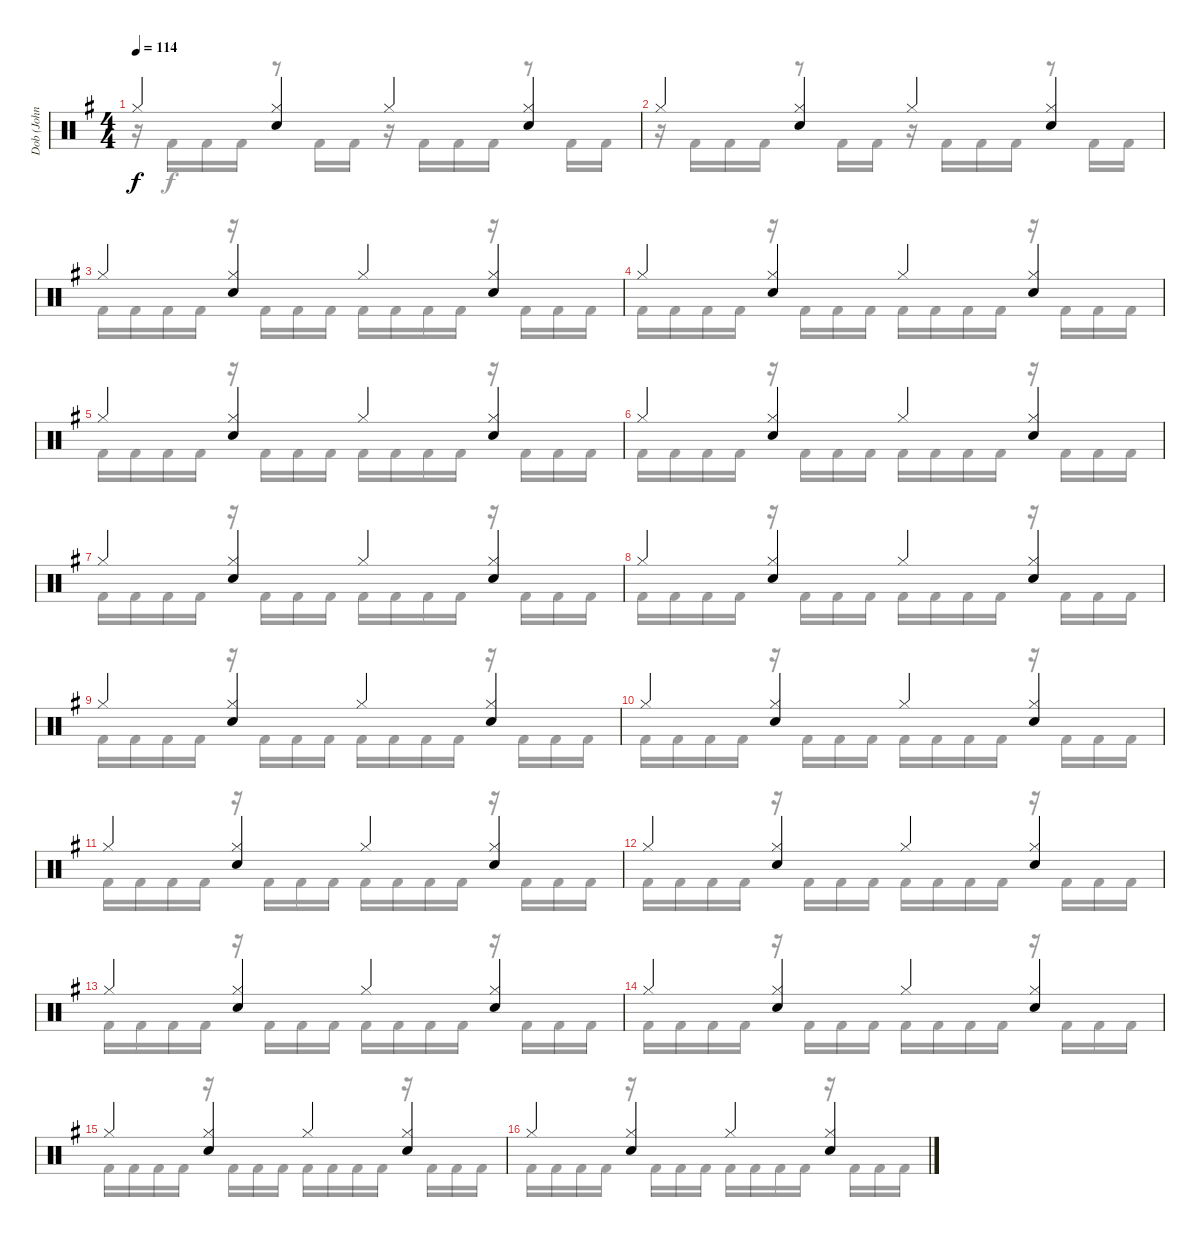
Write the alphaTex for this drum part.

\track ("Dob (John Macaluso)" "Dob (John ") {instrument percussion}
\staff {score}
\articulation defaults
\voice
\ts (4 4)
\tempo 114
\clef neutral
\ks g "Hi-Hat (closed)".4{dy f}
("Hi-Hat (closed)" "Electric Snare (hit)").4 "Hi-Hat (closed)".4 ("Hi-Hat (closed)" "Electric Snare (hit)").4 |
"Hi-Hat (closed)".4 ("Hi-Hat (closed)" "Electric Snare (hit)").4 "Hi-Hat (closed)".4 ("Hi-Hat (closed)" "Electric Snare (hit)").4 |
"Hi-Hat (closed)".4 ("Hi-Hat (closed)" "Electric Snare (hit)").4 "Hi-Hat (closed)".4 ("Hi-Hat (closed)" "Electric Snare (hit)").4 |
"Hi-Hat (closed)".4 ("Hi-Hat (closed)" "Electric Snare (hit)").4 "Hi-Hat (closed)".4 ("Hi-Hat (closed)" "Electric Snare (hit)").4 |
"Hi-Hat (closed)".4 ("Hi-Hat (closed)" "Electric Snare (hit)").4 "Hi-Hat (closed)".4 ("Hi-Hat (closed)" "Electric Snare (hit)").4 |
"Hi-Hat (closed)".4 ("Hi-Hat (closed)" "Electric Snare (hit)").4 "Hi-Hat (closed)".4 ("Hi-Hat (closed)" "Electric Snare (hit)").4 |
"Hi-Hat (closed)".4 ("Hi-Hat (closed)" "Electric Snare (hit)").4 "Hi-Hat (closed)".4 ("Hi-Hat (closed)" "Electric Snare (hit)").4 |
"Hi-Hat (closed)".4 ("Hi-Hat (closed)" "Electric Snare (hit)").4 "Hi-Hat (closed)".4 ("Hi-Hat (closed)" "Electric Snare (hit)").4 |
"Hi-Hat (closed)".4 ("Hi-Hat (closed)" "Electric Snare (hit)").4 "Hi-Hat (closed)".4 ("Hi-Hat (closed)" "Electric Snare (hit)").4 |
"Hi-Hat (closed)".4 ("Hi-Hat (closed)" "Electric Snare (hit)").4 "Hi-Hat (closed)".4 ("Hi-Hat (closed)" "Electric Snare (hit)").4 |
"Hi-Hat (closed)".4 ("Hi-Hat (closed)" "Electric Snare (hit)").4 "Hi-Hat (closed)".4 ("Hi-Hat (closed)" "Electric Snare (hit)").4 |
"Hi-Hat (closed)".4 ("Hi-Hat (closed)" "Electric Snare (hit)").4 "Hi-Hat (closed)".4 ("Hi-Hat (closed)" "Electric Snare (hit)").4 |
"Hi-Hat (closed)".4 ("Hi-Hat (closed)" "Electric Snare (hit)").4 "Hi-Hat (closed)".4 ("Hi-Hat (closed)" "Electric Snare (hit)").4 |
"Hi-Hat (closed)".4 ("Hi-Hat (closed)" "Electric Snare (hit)").4 "Hi-Hat (closed)".4 ("Hi-Hat (closed)" "Electric Snare (hit)").4 |
"Hi-Hat (closed)".4 ("Hi-Hat (closed)" "Electric Snare (hit)").4 "Hi-Hat (closed)".4 ("Hi-Hat (closed)" "Electric Snare (hit)").4 |
"Hi-Hat (closed)".4 ("Hi-Hat (closed)" "Electric Snare (hit)").4 "Hi-Hat (closed)".4 ("Hi-Hat (closed)" "Electric Snare (hit)").4
\voice
\clef neutral
\ottava regular
\simile none
\ks g
r.16{dy f} "Kick (hit) 2".16 "Kick (hit) 2".16 "Kick (hit) 2".16 r.8 "Kick (hit) 2".16 "Kick (hit) 2".16 r.16 "Kick (hit) 2".16 "Kick (hit) 2".16 "Kick (hit) 2".16 r.8 "Kick (hit) 2".16 "Kick (hit) 2".16 |
r.16 "Kick (hit) 2".16 "Kick (hit) 2".16 "Kick (hit) 2".16 r.8 "Kick (hit) 2".16 "Kick (hit) 2".16 r.16 "Kick (hit) 2".16 "Kick (hit) 2".16 "Kick (hit) 2".16 r.8 "Kick (hit) 2".16 "Kick (hit) 2".16 |
"Kick (hit) 2".16 "Kick (hit) 2".16 "Kick (hit) 2".16 "Kick (hit) 2".16 r.16 "Kick (hit) 2".16 "Kick (hit) 2".16 "Kick (hit) 2".16 "Kick (hit) 2".16 "Kick (hit) 2".16 "Kick (hit) 2".16 "Kick (hit) 2".16 r.16 "Kick (hit) 2".16 "Kick (hit) 2".16 "Kick (hit) 2".16 |
"Kick (hit) 2".16 "Kick (hit) 2".16 "Kick (hit) 2".16 "Kick (hit) 2".16 r.16 "Kick (hit) 2".16 "Kick (hit) 2".16 "Kick (hit) 2".16 "Kick (hit) 2".16 "Kick (hit) 2".16 "Kick (hit) 2".16 "Kick (hit) 2".16 r.16 "Kick (hit) 2".16 "Kick (hit) 2".16 "Kick (hit) 2".16 |
"Kick (hit) 2".16 "Kick (hit) 2".16 "Kick (hit) 2".16 "Kick (hit) 2".16 r.16 "Kick (hit) 2".16 "Kick (hit) 2".16 "Kick (hit) 2".16 "Kick (hit) 2".16 "Kick (hit) 2".16 "Kick (hit) 2".16 "Kick (hit) 2".16 r.16 "Kick (hit) 2".16 "Kick (hit) 2".16 "Kick (hit) 2".16 |
"Kick (hit) 2".16 "Kick (hit) 2".16 "Kick (hit) 2".16 "Kick (hit) 2".16 r.16 "Kick (hit) 2".16 "Kick (hit) 2".16 "Kick (hit) 2".16 "Kick (hit) 2".16 "Kick (hit) 2".16 "Kick (hit) 2".16 "Kick (hit) 2".16 r.16 "Kick (hit) 2".16 "Kick (hit) 2".16 "Kick (hit) 2".16 |
"Kick (hit) 2".16 "Kick (hit) 2".16 "Kick (hit) 2".16 "Kick (hit) 2".16 r.16 "Kick (hit) 2".16 "Kick (hit) 2".16 "Kick (hit) 2".16 "Kick (hit) 2".16 "Kick (hit) 2".16 "Kick (hit) 2".16 "Kick (hit) 2".16 r.16 "Kick (hit) 2".16 "Kick (hit) 2".16 "Kick (hit) 2".16 |
"Kick (hit) 2".16 "Kick (hit) 2".16 "Kick (hit) 2".16 "Kick (hit) 2".16 r.16 "Kick (hit) 2".16 "Kick (hit) 2".16 "Kick (hit) 2".16 "Kick (hit) 2".16 "Kick (hit) 2".16 "Kick (hit) 2".16 "Kick (hit) 2".16 r.16 "Kick (hit) 2".16 "Kick (hit) 2".16 "Kick (hit) 2".16 |
"Kick (hit) 2".16 "Kick (hit) 2".16 "Kick (hit) 2".16 "Kick (hit) 2".16 r.16 "Kick (hit) 2".16 "Kick (hit) 2".16 "Kick (hit) 2".16 "Kick (hit) 2".16 "Kick (hit) 2".16 "Kick (hit) 2".16 "Kick (hit) 2".16 r.16 "Kick (hit) 2".16 "Kick (hit) 2".16 "Kick (hit) 2".16 |
"Kick (hit) 2".16 "Kick (hit) 2".16 "Kick (hit) 2".16 "Kick (hit) 2".16 r.16 "Kick (hit) 2".16 "Kick (hit) 2".16 "Kick (hit) 2".16 "Kick (hit) 2".16 "Kick (hit) 2".16 "Kick (hit) 2".16 "Kick (hit) 2".16 r.16 "Kick (hit) 2".16 "Kick (hit) 2".16 "Kick (hit) 2".16 |
"Kick (hit) 2".16 "Kick (hit) 2".16 "Kick (hit) 2".16 "Kick (hit) 2".16 r.16 "Kick (hit) 2".16 "Kick (hit) 2".16 "Kick (hit) 2".16 "Kick (hit) 2".16 "Kick (hit) 2".16 "Kick (hit) 2".16 "Kick (hit) 2".16 r.16 "Kick (hit) 2".16 "Kick (hit) 2".16 "Kick (hit) 2".16 |
"Kick (hit) 2".16 "Kick (hit) 2".16 "Kick (hit) 2".16 "Kick (hit) 2".16 r.16 "Kick (hit) 2".16 "Kick (hit) 2".16 "Kick (hit) 2".16 "Kick (hit) 2".16 "Kick (hit) 2".16 "Kick (hit) 2".16 "Kick (hit) 2".16 r.16 "Kick (hit) 2".16 "Kick (hit) 2".16 "Kick (hit) 2".16 |
"Kick (hit) 2".16 "Kick (hit) 2".16 "Kick (hit) 2".16 "Kick (hit) 2".16 r.16 "Kick (hit) 2".16 "Kick (hit) 2".16 "Kick (hit) 2".16 "Kick (hit) 2".16 "Kick (hit) 2".16 "Kick (hit) 2".16 "Kick (hit) 2".16 r.16 "Kick (hit) 2".16 "Kick (hit) 2".16 "Kick (hit) 2".16 |
"Kick (hit) 2".16 "Kick (hit) 2".16 "Kick (hit) 2".16 "Kick (hit) 2".16 r.16 "Kick (hit) 2".16 "Kick (hit) 2".16 "Kick (hit) 2".16 "Kick (hit) 2".16 "Kick (hit) 2".16 "Kick (hit) 2".16 "Kick (hit) 2".16 r.16 "Kick (hit) 2".16 "Kick (hit) 2".16 "Kick (hit) 2".16 |
"Kick (hit) 2".16 "Kick (hit) 2".16 "Kick (hit) 2".16 "Kick (hit) 2".16 r.16 "Kick (hit) 2".16 "Kick (hit) 2".16 "Kick (hit) 2".16 "Kick (hit) 2".16 "Kick (hit) 2".16 "Kick (hit) 2".16 "Kick (hit) 2".16 r.16 "Kick (hit) 2".16 "Kick (hit) 2".16 "Kick (hit) 2".16 |
"Kick (hit) 2".16 "Kick (hit) 2".16 "Kick (hit) 2".16 "Kick (hit) 2".16 r.16 "Kick (hit) 2".16 "Kick (hit) 2".16 "Kick (hit) 2".16 "Kick (hit) 2".16 "Kick (hit) 2".16 "Kick (hit) 2".16 "Kick (hit) 2".16 r.16 "Kick (hit) 2".16 "Kick (hit) 2".16 "Kick (hit) 2".16
